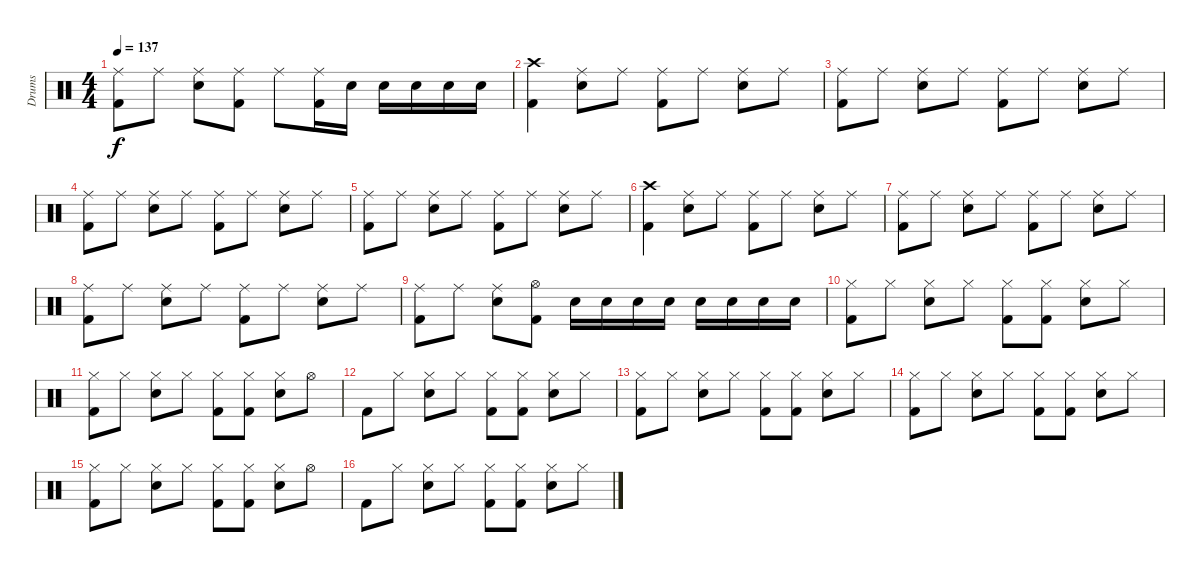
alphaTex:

\track ("Drums" "Drums") {instrument percussion}
\staff {score}
\articulation defaults
\ts (4 4)
\tempo 137
\clef neutral
\ks c
("Ride (middle)" "Kick (hit) 2").8{dy f} "Ride (middle)".8 ("Ride (middle)" "Snare (hit) 2").8 ("Ride (middle)" "Kick (hit) 2").8 "Ride (middle)".8 ("Ride (middle)" "Kick (hit) 2").16 "Snare (hit) 2".16 "Snare (hit) 2".16 "Snare (hit) 2".16 "Snare (hit) 2".16 "Snare (hit) 2".16 |
("Crash high (hit)" "Kick (hit) 2").4 ("Ride (middle)" "Snare (hit) 2").8 "Ride (middle)".8 ("Ride (middle)" "Kick (hit) 2").8 "Ride (middle)".8 ("Ride (middle)" "Snare (hit) 2").8 "Ride (middle)".8 |
("Ride (middle)" "Kick (hit) 2").8 "Ride (middle)".8 ("Ride (middle)" "Snare (hit) 2").8 "Ride (middle)".8 ("Ride (middle)" "Kick (hit) 2").8 "Ride (middle)".8 ("Ride (middle)" "Snare (hit) 2").8 "Ride (middle)".8 |
("Ride (middle)" "Kick (hit) 2").8 "Ride (middle)".8 ("Ride (middle)" "Snare (hit) 2").8 "Ride (middle)".8 ("Ride (middle)" "Kick (hit) 2").8 "Ride (middle)".8 ("Ride (middle)" "Snare (hit) 2").8 "Ride (middle)".8 |
("Ride (middle)" "Kick (hit) 2").8 "Ride (middle)".8 ("Ride (middle)" "Snare (hit) 2").8 "Ride (middle)".8 ("Ride (middle)" "Kick (hit) 2").8 "Ride (middle)".8 ("Ride (middle)" "Snare (hit) 2").8 "Ride (middle)".8 |
("Crash high (hit)" "Kick (hit) 2").4 ("Ride (middle)" "Snare (hit) 2").8 "Ride (middle)".8 ("Ride (middle)" "Kick (hit) 2").8 "Ride (middle)".8 ("Ride (middle)" "Snare (hit) 2").8 "Ride (middle)".8 |
("Ride (middle)" "Kick (hit) 2").8 "Ride (middle)".8 ("Ride (middle)" "Snare (hit) 2").8 "Ride (middle)".8 ("Ride (middle)" "Kick (hit) 2").8 "Ride (middle)".8 ("Ride (middle)" "Snare (hit) 2").8 "Ride (middle)".8 |
("Ride (middle)" "Kick (hit) 2").8 "Ride (middle)".8 ("Ride (middle)" "Snare (hit) 2").8 "Ride (middle)".8 ("Ride (middle)" "Kick (hit) 2").8 "Ride (middle)".8 ("Ride (middle)" "Snare (hit) 2").8 "Ride (middle)".8 |
("Ride (middle)" "Kick (hit) 2").8 "Ride (middle)".8 ("Ride (middle)" "Snare (hit) 2").8 ("Hi-Hat (open)" "Kick (hit) 2").8 "Snare (hit) 2".16 "Snare (hit) 2".16 "Snare (hit) 2".16 "Snare (hit) 2".16 "Snare (hit) 2".16 "Snare (hit) 2".16 "Snare (hit) 2".16 "Snare (hit) 2".16 |
("Hi-Hat (closed)" "Kick (hit) 2").8 "Hi-Hat (closed)".8 ("Hi-Hat (closed)" "Snare (hit) 2").8 "Hi-Hat (closed)".8 ("Hi-Hat (closed)" "Kick (hit) 2").8 ("Hi-Hat (closed)" "Kick (hit) 2").8 ("Hi-Hat (closed)" "Snare (hit) 2").8 "Hi-Hat (closed)".8 |
("Hi-Hat (closed)" "Kick (hit) 2").8 "Hi-Hat (closed)".8 ("Hi-Hat (closed)" "Snare (hit) 2").8 "Hi-Hat (closed)".8 ("Hi-Hat (closed)" "Kick (hit) 2").8 ("Hi-Hat (closed)" "Kick (hit) 2").8 ("Hi-Hat (closed)" "Snare (hit) 2").8 "Hi-Hat (open)".8 |
"Kick (hit) 2".8 "Hi-Hat (closed)".8 ("Hi-Hat (closed)" "Snare (hit) 2").8 "Hi-Hat (closed)".8 ("Hi-Hat (closed)" "Kick (hit) 2").8 ("Hi-Hat (closed)" "Kick (hit) 2").8 ("Hi-Hat (closed)" "Snare (hit) 2").8 "Hi-Hat (closed)".8 |
("Hi-Hat (closed)" "Kick (hit) 2").8 "Hi-Hat (closed)".8 ("Hi-Hat (closed)" "Snare (hit) 2").8 "Hi-Hat (closed)".8 ("Hi-Hat (closed)" "Kick (hit) 2").8 ("Hi-Hat (closed)" "Kick (hit) 2").8 ("Hi-Hat (closed)" "Snare (hit) 2").8 "Hi-Hat (closed)".8 |
("Hi-Hat (closed)" "Kick (hit) 2").8 "Hi-Hat (closed)".8 ("Hi-Hat (closed)" "Snare (hit) 2").8 "Hi-Hat (closed)".8 ("Hi-Hat (closed)" "Kick (hit) 2").8 ("Hi-Hat (closed)" "Kick (hit) 2").8 ("Hi-Hat (closed)" "Snare (hit) 2").8 "Hi-Hat (closed)".8 |
("Hi-Hat (closed)" "Kick (hit) 2").8 "Hi-Hat (closed)".8 ("Hi-Hat (closed)" "Snare (hit) 2").8 "Hi-Hat (closed)".8 ("Hi-Hat (closed)" "Kick (hit) 2").8 ("Hi-Hat (closed)" "Kick (hit) 2").8 ("Hi-Hat (closed)" "Snare (hit) 2").8 "Hi-Hat (open)".8 |
"Kick (hit) 2".8 "Hi-Hat (closed)".8 ("Hi-Hat (closed)" "Snare (hit) 2").8 "Hi-Hat (closed)".8 ("Hi-Hat (closed)" "Kick (hit) 2").8 ("Hi-Hat (closed)" "Kick (hit) 2").8 ("Hi-Hat (closed)" "Snare (hit) 2").8 "Hi-Hat (closed)".8
